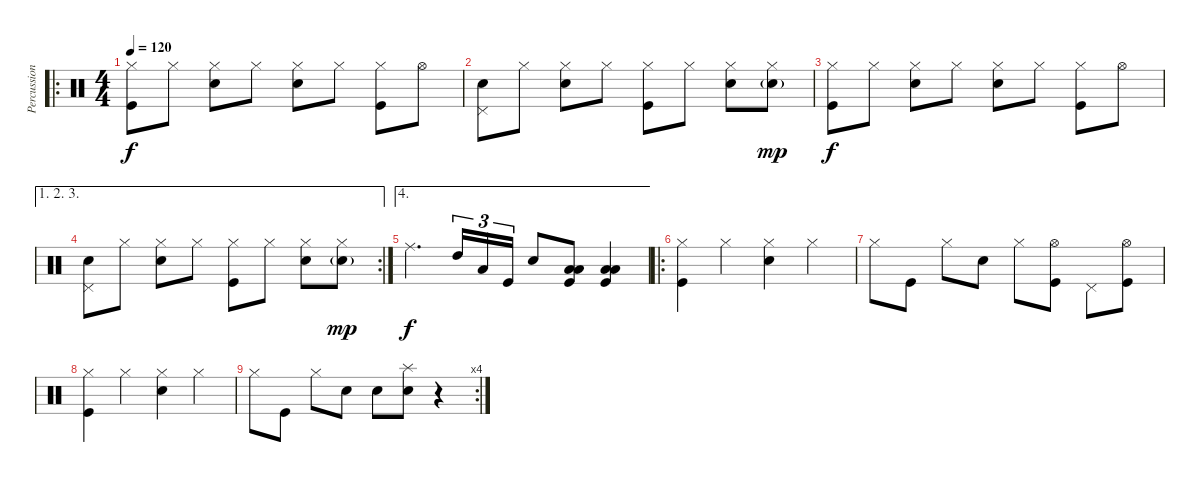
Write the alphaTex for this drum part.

\track ("Percussion" "Percussion") {instrument percussion}
\staff {score}
\articulation defaults
\ro
\ts (4 4)
\tempo 120
\clef neutral
\ks c
("Hi-Hat (closed)" "Kick (hit)").8{dy f} "Hi-Hat (closed)".8 ("Hi-Hat (closed)" "Snare (hit) 2").8 "Hi-Hat (closed)".8 ("Hi-Hat (closed)" "Snare (hit) 2").8 "Hi-Hat (closed)".8 ("Hi-Hat (closed)" "Kick (hit)").8 "Hi-Hat (open)".8 |
("Pedal Hi-Hat (hit)" "Snare (hit) 2").8 "Hi-Hat (closed)".8 ("Hi-Hat (closed)" "Snare (hit) 2").8 "Hi-Hat (closed)".8 ("Hi-Hat (closed)" "Kick (hit)").8 "Hi-Hat (closed)".8 ("Hi-Hat (closed)" "Snare (hit) 2").8 ("Hi-Hat (closed)" "Snare (hit) 2"{g}).8{dy mp} |
("Hi-Hat (closed)" "Kick (hit)").8{dy f} "Hi-Hat (closed)".8 ("Hi-Hat (closed)" "Snare (hit) 2").8 "Hi-Hat (closed)".8 ("Hi-Hat (closed)" "Snare (hit) 2").8 "Hi-Hat (closed)".8 ("Hi-Hat (closed)" "Kick (hit)").8 "Hi-Hat (open)".8 |
\ae (1 2 3)
\rc 2
("Pedal Hi-Hat (hit)" "Snare (hit) 2").8 "Hi-Hat (closed)".8 ("Hi-Hat (closed)" "Snare (hit) 2").8 "Hi-Hat (closed)".8 ("Hi-Hat (closed)" "Kick (hit)").8 "Hi-Hat (closed)".8 ("Hi-Hat (closed)" "Snare (hit) 2").8 ("Hi-Hat (closed)" "Snare (hit) 2"{g}).8{dy mp} |
\ae 4 "Ride (middle)".4{d dy f} "High Tom (hit)".16{tu (3 2)} "Low Tom (hit)".16{tu (3 2)} "Kick (hit)".16{tu (3 2)} "Snare (hit) 2".8
("Low Tom (hit)" "Low Floor Tom (hit)" "Kick (hit)").8 ("Low Tom (hit)" "Low Floor Tom (hit)" "Kick (hit)").4 |
\ro
("Hi-Hat (closed)" "Kick (hit)").4 "Hi-Hat (closed)".4 ("Hi-Hat (closed)" "Snare (hit) 2").4 "Hi-Hat (closed)".4 |
"Hi-Hat (closed)".8 "Kick (hit)".8 "Hi-Hat (closed)".8 "Snare (hit) 2".8 "Hi-Hat (closed)".8 ("Hi-Hat (open)" "Kick (hit)").8 "Pedal Hi-Hat (hit)".8 ("Hi-Hat (open)" "Kick (hit)").8 |
("Hi-Hat (closed)" "Kick (hit)").4 "Hi-Hat (closed)".4 ("Hi-Hat (closed)" "Snare (hit) 2").4 "Hi-Hat (closed)".4 |
\rc 4 "Hi-Hat (closed)".8 "Kick (hit)".8 "Hi-Hat (closed)".8 "Snare (hit) 2".8 "Snare (hit) 2".8
("Splash (hit)" "Snare (hit) 2").8 r.4
